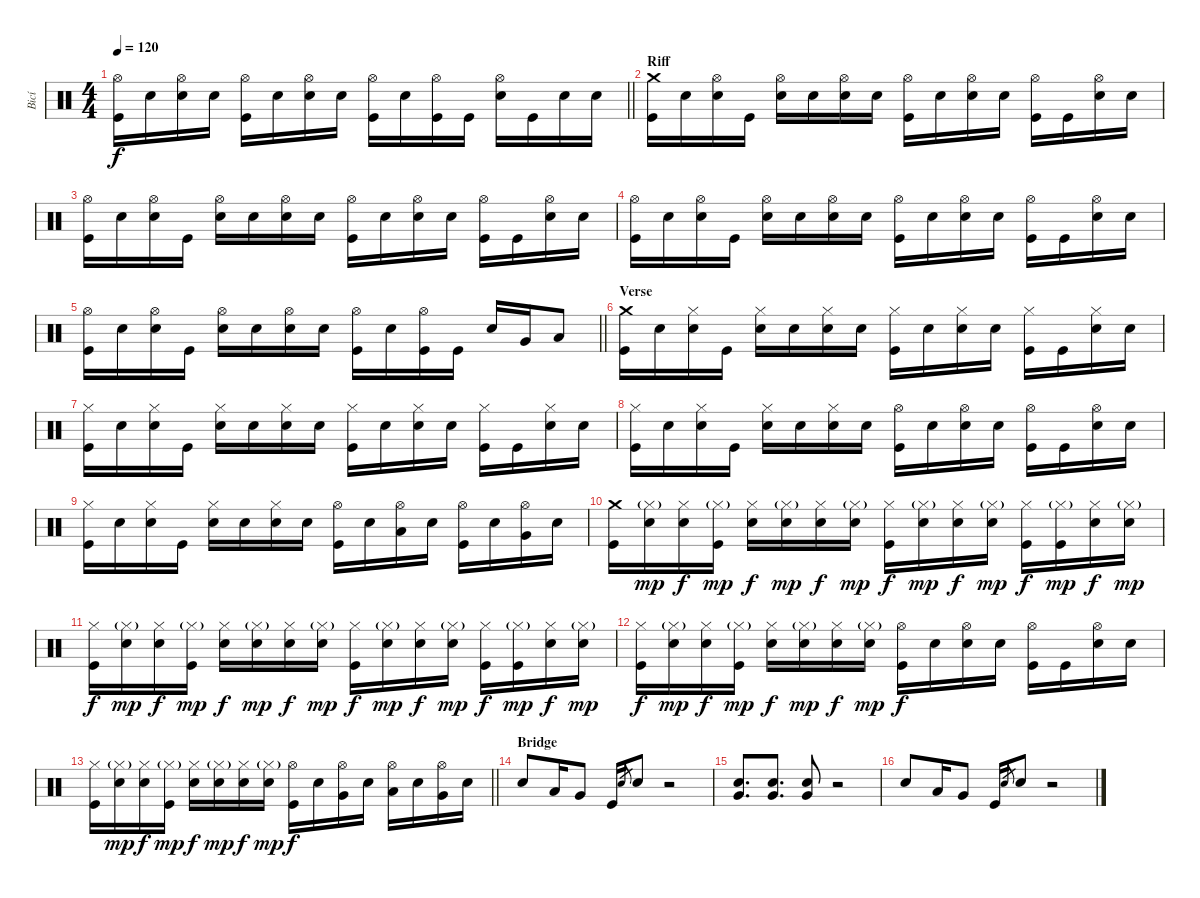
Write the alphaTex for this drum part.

\track ("Bicí" "Bicí") {instrument percussion}
\staff {score}
\articulation defaults
\ts (4 4)
\tempo 120
\clef neutral
\barLineRight lightlight
\ks c
("Hi-Hat (open)" "Kick (hit)").16{dy f} "Snare (hit)".16 ("Hi-Hat (open)" "Electric Snare (hit)").16 "Snare (hit)".16 ("Hi-Hat (open)" "Kick (hit)").16 "Snare (hit)".16 ("Hi-Hat (open)" "Electric Snare (hit)").16 "Snare (hit)".16 ("Hi-Hat (open)" "Kick (hit)").16 "Electric Snare (hit)".16 ("Hi-Hat (open)" "Kick (hit)").16 "Kick (hit)".16 ("Hi-Hat (open)" "Electric Snare (hit)").16 "Kick (hit)".16 "Electric Snare (hit)".16 "Electric Snare (hit)".16 |
\section ("" "Riff")
("Crash medium (hit)" "Kick (hit)").16 "Snare (hit)".16 ("Hi-Hat (open)" "Electric Snare (hit)").16 "Kick (hit)".16 ("Hi-Hat (open)" "Snare (hit)").16 "Snare (hit)".16 ("Hi-Hat (open)" "Electric Snare (hit)").16 "Snare (hit)".16 ("Hi-Hat (open)" "Kick (hit)").16 "Snare (hit)".16 ("Hi-Hat (open)" "Electric Snare (hit)").16 "Snare (hit)".16 ("Hi-Hat (open)" "Kick (hit)").16 "Kick (hit)".16 ("Hi-Hat (open)" "Electric Snare (hit)").16 "Snare (hit)".16 |
("Hi-Hat (open)" "Kick (hit)").16 "Snare (hit)".16 ("Hi-Hat (open)" "Electric Snare (hit)").16 "Kick (hit)".16 ("Hi-Hat (open)" "Snare (hit)").16 "Snare (hit)".16 ("Hi-Hat (open)" "Electric Snare (hit)").16 "Snare (hit)".16 ("Hi-Hat (open)" "Kick (hit)").16 "Snare (hit)".16 ("Hi-Hat (open)" "Electric Snare (hit)").16 "Snare (hit)".16 ("Hi-Hat (open)" "Kick (hit)").16 "Kick (hit)".16 ("Hi-Hat (open)" "Electric Snare (hit)").16 "Snare (hit)".16 |
("Hi-Hat (open)" "Kick (hit)").16 "Snare (hit)".16 ("Hi-Hat (open)" "Electric Snare (hit)").16 "Kick (hit)".16 ("Hi-Hat (open)" "Snare (hit)").16 "Snare (hit)".16 ("Hi-Hat (open)" "Electric Snare (hit)").16 "Snare (hit)".16 ("Hi-Hat (open)" "Kick (hit)").16 "Snare (hit)".16 ("Hi-Hat (open)" "Electric Snare (hit)").16 "Snare (hit)".16 ("Hi-Hat (open)" "Kick (hit)").16 "Kick (hit)".16 ("Hi-Hat (open)" "Electric Snare (hit)").16 "Snare (hit)".16 |
\barLineRight lightlight
("Hi-Hat (open)" "Kick (hit)").16 "Snare (hit)".16 ("Hi-Hat (open)" "Electric Snare (hit)").16 "Kick (hit)".16 ("Hi-Hat (open)" "Snare (hit)").16 "Snare (hit)".16 ("Hi-Hat (open)" "Electric Snare (hit)").16 "Snare (hit)".16 ("Hi-Hat (open)" "Kick (hit)").16 "Electric Snare (hit)".16 ("Hi-Hat (open)" "Kick (hit)").16 "Kick (hit)".16 "Electric Snare (hit)".16 "Very Low Tom (hit)".16 "Low Floor Tom (hit)".8 |
\section ("" "Verse")
("Crash medium (hit)" "Kick (hit)").16 "Snare (hit)".16 ("Hi-Hat (closed)" "Electric Snare (hit)").16 "Kick (hit)".16 ("Hi-Hat (closed)" "Snare (hit)").16 "Snare (hit)".16 ("Hi-Hat (closed)" "Electric Snare (hit)").16 "Snare (hit)".16 ("Hi-Hat (closed)" "Kick (hit)").16 "Snare (hit)".16 ("Hi-Hat (closed)" "Electric Snare (hit)").16 "Snare (hit)".16 ("Hi-Hat (closed)" "Kick (hit)").16 "Kick (hit)".16 ("Hi-Hat (closed)" "Electric Snare (hit)").16 "Snare (hit)".16 |
("Hi-Hat (closed)" "Kick (hit)").16 "Snare (hit)".16 ("Hi-Hat (closed)" "Electric Snare (hit)").16 "Kick (hit)".16 ("Hi-Hat (closed)" "Snare (hit)").16 "Snare (hit)".16 ("Hi-Hat (closed)" "Electric Snare (hit)").16 "Snare (hit)".16 ("Hi-Hat (closed)" "Kick (hit)").16 "Snare (hit)".16 ("Hi-Hat (closed)" "Electric Snare (hit)").16 "Snare (hit)".16 ("Hi-Hat (closed)" "Kick (hit)").16 "Kick (hit)".16 ("Hi-Hat (closed)" "Electric Snare (hit)").16 "Snare (hit)".16 |
("Hi-Hat (closed)" "Kick (hit)").16 "Snare (hit)".16 ("Hi-Hat (closed)" "Electric Snare (hit)").16 "Kick (hit)".16 ("Hi-Hat (closed)" "Snare (hit)").16 "Snare (hit)".16 ("Hi-Hat (closed)" "Electric Snare (hit)").16 "Snare (hit)".16 ("Hi-Hat (open)" "Kick (hit)").16 "Snare (hit)".16 ("Hi-Hat (open)" "Electric Snare (hit)").16 "Snare (hit)".16 ("Hi-Hat (open)" "Kick (hit)").16 "Kick (hit)".16 ("Hi-Hat (open)" "Electric Snare (hit)").16 "Snare (hit)".16 |
("Hi-Hat (closed)" "Kick (hit)").16 "Snare (hit)".16 ("Hi-Hat (closed)" "Electric Snare (hit)").16 "Kick (hit)".16 ("Hi-Hat (closed)" "Snare (hit)").16 "Snare (hit)".16 ("Hi-Hat (closed)" "Electric Snare (hit)").16 "Snare (hit)".16 ("Hi-Hat (open)" "Kick (hit)").16 "Snare (hit)".16 ("Hi-Hat (open)" "Low Tom (hit)").16 "Snare (hit)".16 ("Hi-Hat (open)" "Kick (hit)").16 "Snare (hit)".16 ("Hi-Hat (open)" "Very Low Tom (hit)").16 "Snare (hit)".16 |
("Crash medium (hit)" "Kick (hit)").16 ("Hi-Hat (closed)"{g} "Snare (hit)").16{dy mp} ("Hi-Hat (closed)" "Electric Snare (hit)").16{dy f} ("Hi-Hat (closed)"{g} "Kick (hit)").16{dy mp} ("Hi-Hat (closed)" "Snare (hit)").16{dy f} ("Hi-Hat (closed)"{g} "Snare (hit)").16{dy mp} ("Hi-Hat (closed)" "Electric Snare (hit)").16{dy f} ("Hi-Hat (closed)"{g} "Snare (hit)").16{dy mp} ("Hi-Hat (closed)" "Kick (hit)").16{dy f} ("Hi-Hat (closed)"{g} "Snare (hit)").16{dy mp} ("Hi-Hat (closed)" "Electric Snare (hit)").16{dy f} ("Hi-Hat (closed)"{g} "Snare (hit)").16{dy mp} ("Hi-Hat (closed)" "Kick (hit)").16{dy f} ("Hi-Hat (closed)"{g} "Kick (hit)").16{dy mp} ("Hi-Hat (closed)" "Electric Snare (hit)").16{dy f} ("Hi-Hat (closed)"{g} "Snare (hit)").16{dy mp} |
("Hi-Hat (closed)" "Kick (hit)").16{dy f} ("Hi-Hat (closed)"{g} "Snare (hit)").16{dy mp} ("Hi-Hat (closed)" "Electric Snare (hit)").16{dy f} ("Hi-Hat (closed)"{g} "Kick (hit)").16{dy mp} ("Hi-Hat (closed)" "Snare (hit)").16{dy f} ("Hi-Hat (closed)"{g} "Snare (hit)").16{dy mp} ("Hi-Hat (closed)" "Electric Snare (hit)").16{dy f} ("Hi-Hat (closed)"{g} "Snare (hit)").16{dy mp} ("Hi-Hat (closed)" "Kick (hit)").16{dy f} ("Hi-Hat (closed)"{g} "Snare (hit)").16{dy mp} ("Hi-Hat (closed)" "Electric Snare (hit)").16{dy f} ("Hi-Hat (closed)"{g} "Snare (hit)").16{dy mp} ("Hi-Hat (closed)" "Kick (hit)").16{dy f} ("Hi-Hat (closed)"{g} "Kick (hit)").16{dy mp} ("Hi-Hat (closed)" "Electric Snare (hit)").16{dy f} ("Hi-Hat (closed)"{g} "Snare (hit)").16{dy mp} |
("Hi-Hat (closed)" "Kick (hit)").16{dy f} ("Hi-Hat (closed)"{g} "Snare (hit)").16{dy mp} ("Hi-Hat (closed)" "Electric Snare (hit)").16{dy f} ("Hi-Hat (closed)"{g} "Kick (hit)").16{dy mp} ("Hi-Hat (closed)" "Snare (hit)").16{dy f} ("Hi-Hat (closed)"{g} "Snare (hit)").16{dy mp} ("Hi-Hat (closed)" "Electric Snare (hit)").16{dy f} ("Hi-Hat (closed)"{g} "Snare (hit)").16{dy mp} ("Hi-Hat (open)" "Kick (hit)").16{dy f} "Snare (hit)".16 ("Hi-Hat (open)" "Electric Snare (hit)").16 "Snare (hit)".16 ("Hi-Hat (open)" "Kick (hit)").16 "Kick (hit)".16 ("Hi-Hat (open)" "Electric Snare (hit)").16 "Snare (hit)".16 |
\barLineRight lightlight
("Hi-Hat (closed)" "Kick (hit)").16 ("Hi-Hat (closed)"{g} "Snare (hit)").16{dy mp} ("Hi-Hat (closed)" "Electric Snare (hit)").16{dy f} ("Hi-Hat (closed)"{g} "Kick (hit)").16{dy mp} ("Hi-Hat (closed)" "Snare (hit)").16{dy f} ("Hi-Hat (closed)"{g} "Snare (hit)").16{dy mp} ("Hi-Hat (closed)" "Electric Snare (hit)").16{dy f} ("Hi-Hat (closed)"{g} "Snare (hit)").16{dy mp} ("Hi-Hat (open)" "Kick (hit)").16{dy f} "Snare (hit)".16 ("Hi-Hat (open)" "Very Low Tom (hit)").16 "Snare (hit)".16 ("Hi-Hat (open)" "Low Floor Tom (hit)").16 "Snare (hit)".16 ("Hi-Hat (open)" "Very Low Tom (hit)").16 "Snare (hit)".16 |
\section ("" "Bridge")
"Electric Snare (hit)".8 "Low Tom (hit)".16 "Very Low Tom (hit)".8 "Kick (hit)".16 "Electric Snare (hit)".8{gr} "Electric Snare (hit)".8 r.2 |
("Very Low Tom (hit)" "Electric Snare (hit)").8{d} ("Very Low Tom (hit)" "Electric Snare (hit)").8{d} ("Very Low Tom (hit)" "Electric Snare (hit)").8 r.2 |
"Electric Snare (hit)".8 "Low Tom (hit)".16 "Very Low Tom (hit)".8 "Kick (hit)".16 "Electric Snare (hit)".8{gr} "Electric Snare (hit)".8 r.2
